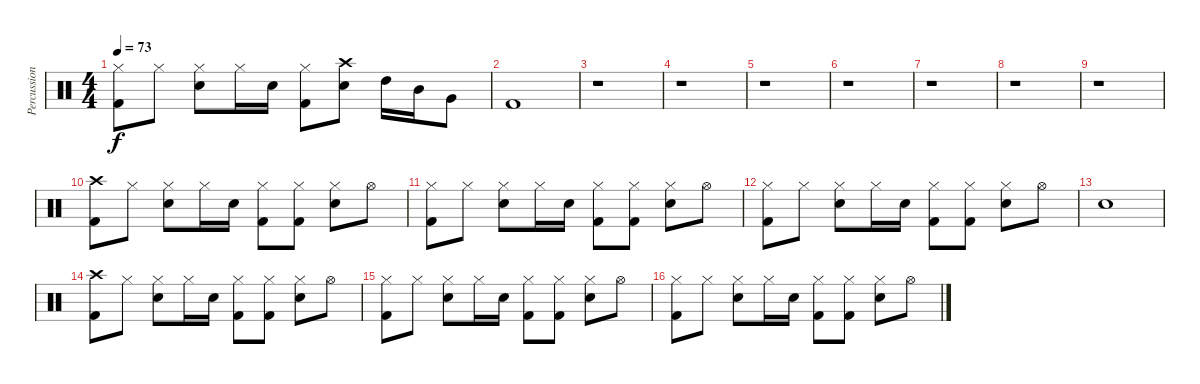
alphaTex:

\track ("Percussioni" "Percussion") {instrument percussion}
\staff {score}
\articulation defaults
\ts (4 4)
\tempo 73
\clef neutral
\ks c
("Hi-Hat (closed)" "Kick (hit) 2").8{dy f} "Hi-Hat (closed)".8 ("Hi-Hat (closed)" "Electric Snare (hit)").8 "Hi-Hat (closed)".16 "Electric Snare (hit)".16 ("Hi-Hat (closed)" "Kick (hit) 2").8 ("Crash high (hit)" "Electric Snare (hit)").8 "High Tom (hit)".16 "Mid Tom (hit)".16 "Very Low Tom (hit)".8 |
"Kick (hit) 2".1 |
r.1 |
r.1 |
r.1 |
r.1 |
r.1 |
r.1 |
r.1 |
("Crash high (hit)" "Kick (hit) 2").8 "Hi-Hat (closed)".8 ("Hi-Hat (closed)" "Electric Snare (hit)").8 "Hi-Hat (closed)".16 "Electric Snare (hit)".16 ("Hi-Hat (closed)" "Kick (hit) 2").8 ("Hi-Hat (closed)" "Kick (hit) 2").8 ("Hi-Hat (closed)" "Electric Snare (hit)").8 "Hi-Hat (open)".8 |
("Hi-Hat (closed)" "Kick (hit) 2").8 "Hi-Hat (closed)".8 ("Hi-Hat (closed)" "Electric Snare (hit)").8 "Hi-Hat (closed)".16 "Electric Snare (hit)".16 ("Hi-Hat (closed)" "Kick (hit) 2").8 ("Hi-Hat (closed)" "Kick (hit) 2").8 ("Hi-Hat (closed)" "Electric Snare (hit)").8 "Hi-Hat (open)".8 |
("Hi-Hat (closed)" "Kick (hit) 2").8 "Hi-Hat (closed)".8 ("Hi-Hat (closed)" "Electric Snare (hit)").8 "Hi-Hat (closed)".16 "Electric Snare (hit)".16 ("Hi-Hat (closed)" "Kick (hit) 2").8 ("Hi-Hat (closed)" "Kick (hit) 2").8 ("Hi-Hat (closed)" "Electric Snare (hit)").8 "Hi-Hat (open)".8 |
"Electric Snare (hit)".1 |
("Crash high (hit)" "Kick (hit) 2").8 "Hi-Hat (closed)".8 ("Hi-Hat (closed)" "Electric Snare (hit)").8 "Hi-Hat (closed)".16 "Electric Snare (hit)".16 ("Hi-Hat (closed)" "Kick (hit) 2").8 ("Hi-Hat (closed)" "Kick (hit) 2").8 ("Hi-Hat (closed)" "Electric Snare (hit)").8 "Hi-Hat (open)".8 |
("Hi-Hat (closed)" "Kick (hit) 2").8 "Hi-Hat (closed)".8 ("Hi-Hat (closed)" "Electric Snare (hit)").8 "Hi-Hat (closed)".16 "Electric Snare (hit)".16 ("Hi-Hat (closed)" "Kick (hit) 2").8 ("Hi-Hat (closed)" "Kick (hit) 2").8 ("Hi-Hat (closed)" "Electric Snare (hit)").8 "Hi-Hat (open)".8 |
("Hi-Hat (closed)" "Kick (hit) 2").8 "Hi-Hat (closed)".8 ("Hi-Hat (closed)" "Electric Snare (hit)").8 "Hi-Hat (closed)".16 "Electric Snare (hit)".16 ("Hi-Hat (closed)" "Kick (hit) 2").8 ("Hi-Hat (closed)" "Kick (hit) 2").8 ("Hi-Hat (closed)" "Electric Snare (hit)").8 "Hi-Hat (open)".8
